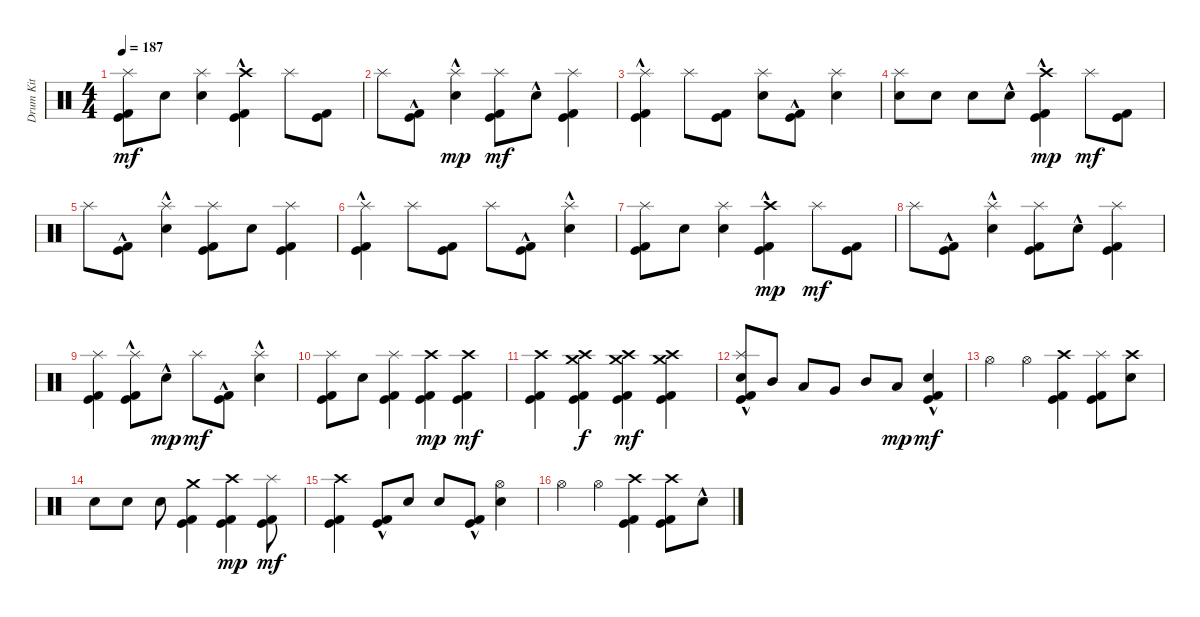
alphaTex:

\track ("Drum Kit" "Drum Kit") {instrument percussion}
\staff {score}
\articulation defaults
\ts (4 4)
\tempo 187
\clef neutral
\ks c
("Kick (hit) 2" "Kick (hit)" "Splash (hit)").8{dy mf} "Electric Snare (hit)".8 ("Electric Snare (hit)" "Splash (hit)").4 ("Kick (hit) 2"{hac} "Kick (hit)"{hac} "Crash high (hit)").4 "Splash (hit)".8 ("Kick (hit) 2" "Kick (hit)").8 |
"Splash (hit)".8 ("Kick (hit) 2"{hac} "Kick (hit)"{hac}).8 ("Electric Snare (hit)"{hac} "Splash (hit)").4{dy mp} ("Kick (hit) 2" "Kick (hit)" "Splash (hit)").8{dy mf} "Electric Snare (hit)"{hac}.8 ("Kick (hit) 2" "Kick (hit)" "Splash (hit)").4 |
("Kick (hit) 2"{hac} "Kick (hit)"{hac} "Splash (hit)").4 "Splash (hit)".8 ("Kick (hit) 2" "Kick (hit)").8 ("Electric Snare (hit)" "Splash (hit)").8 ("Kick (hit) 2"{hac} "Kick (hit)"{hac}).8 ("Electric Snare (hit)" "Splash (hit)").4 |
("Electric Snare (hit)" "Splash (hit)").8 "Electric Snare (hit)".8 "Electric Snare (hit)".8 "Electric Snare (hit)"{hac}.8 ("Kick (hit) 2"{hac} "Kick (hit)"{hac} "Crash high (hit)").4{dy mp} "Splash (hit)".8{dy mf} ("Kick (hit) 2" "Kick (hit)").8 |
"Splash (hit)".8 ("Kick (hit) 2"{hac} "Kick (hit)"{hac}).8 ("Electric Snare (hit)"{hac} "Splash (hit)").4 ("Kick (hit) 2" "Kick (hit)" "Splash (hit)").8 "Electric Snare (hit)".8 ("Kick (hit) 2" "Kick (hit)" "Splash (hit)").4 |
("Kick (hit) 2"{hac} "Kick (hit)"{hac} "Splash (hit)").4 "Splash (hit)".8 ("Kick (hit) 2" "Kick (hit)").8 "Splash (hit)".8 ("Kick (hit) 2"{hac} "Kick (hit)"{hac}).8 ("Electric Snare (hit)"{hac} "Splash (hit)").4 |
("Kick (hit) 2" "Kick (hit)" "Splash (hit)").8 "Electric Snare (hit)".8 ("Electric Snare (hit)" "Splash (hit)").4 ("Kick (hit) 2"{hac} "Kick (hit)"{hac} "Crash high (hit)").4{dy mp} "Splash (hit)".8{dy mf} ("Kick (hit) 2" "Kick (hit)").8 |
"Splash (hit)".8 ("Kick (hit) 2"{hac} "Kick (hit)"{hac}).8 ("Electric Snare (hit)"{hac} "Splash (hit)").4 ("Kick (hit) 2" "Kick (hit)" "Splash (hit)").8 "Electric Snare (hit)"{hac}.8 ("Kick (hit) 2" "Kick (hit)" "Splash (hit)").4 |
("Kick (hit) 2" "Kick (hit)" "Splash (hit)").4 ("Kick (hit) 2"{hac} "Kick (hit)"{hac} "Splash (hit)").8 "Electric Snare (hit)"{hac}.8{dy mp} "Splash (hit)".8{dy mf} ("Kick (hit) 2"{hac} "Kick (hit)"{hac}).8 ("Electric Snare (hit)"{hac} "Splash (hit)").4 |
("Kick (hit) 2" "Kick (hit)" "Splash (hit)").8 "Electric Snare (hit)".8 ("Kick (hit) 2" "Kick (hit)" "Splash (hit)").4 ("Kick (hit) 2" "Kick (hit)" "Crash high (hit)").4{dy mp} ("Kick (hit) 2" "Kick (hit)" "Crash high (hit)").4{dy mf} |
("Kick (hit) 2" "Kick (hit)" "Crash high (hit)").4 ("Kick (hit) 2" "Kick (hit)" "Crash high (hit)" "Crash medium (hit)").4{dy f} ("Kick (hit) 2" "Kick (hit)" "Crash high (hit)" "Crash medium (hit)").4{dy mf} ("Kick (hit) 2" "Kick (hit)" "Crash high (hit)" "Crash medium (hit)").4 |
("Kick (hit) 2"{hac} "Kick (hit)"{hac} "Electric Snare (hit)" "Splash (hit)").8 "Mid Tom (hit)".8 "Low Tom (hit)".8 "Very Low Tom (hit)".8 "Mid Tom (hit)".8 "Low Tom (hit)".8{dy mp} ("Kick (hit) 2"{hac} "Kick (hit)"{hac} "Electric Snare (hit)").4{dy mf} |
"Hi-Hat (open)".4 "Hi-Hat (open)".4 ("Kick (hit) 2" "Kick (hit)" "Crash high (hit)").4 ("Kick (hit) 2" "Kick (hit)" "Splash (hit)").8 ("Electric Snare (hit)" "Crash high (hit)").8 |
"Electric Snare (hit)".8 "Electric Snare (hit)".8 "Electric Snare (hit)".8 ("Kick (hit) 2" "Kick (hit)" "Crash medium (hit)").4 ("Kick (hit) 2" "Kick (hit)" "Crash high (hit)").4{dy mp} ("Kick (hit) 2" "Kick (hit)" "Splash (hit)").8{dy mf} |
("Kick (hit) 2" "Kick (hit)" "Crash high (hit)").4 ("Kick (hit) 2"{hac} "Kick (hit)"{hac}).8 "Electric Snare (hit)".8 "Electric Snare (hit)".8 ("Kick (hit) 2"{hac} "Kick (hit)"{hac}).8 ("Electric Snare (hit)" "Hi-Hat (open)").4 |
"Hi-Hat (open)".4 "Hi-Hat (open)".4 ("Kick (hit) 2" "Kick (hit)" "Crash high (hit)").4 ("Kick (hit) 2" "Kick (hit)" "Crash high (hit)").8 "Electric Snare (hit)"{hac}.8
